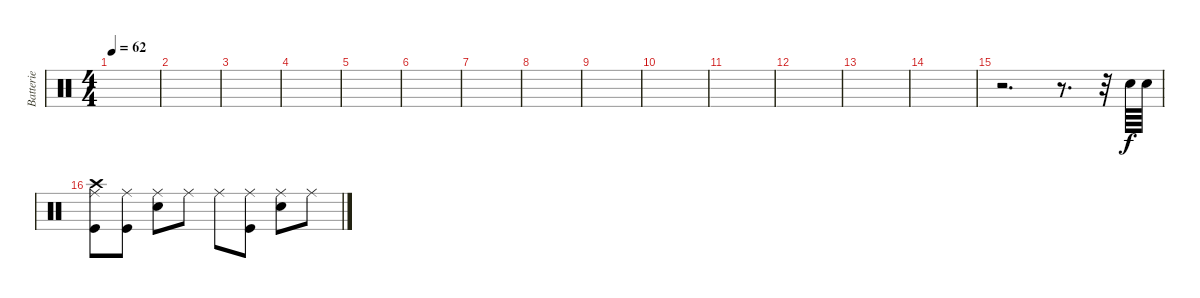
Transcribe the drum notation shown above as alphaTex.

\track ("Batterie" "Batterie") {instrument percussion}
\staff {score}
\articulation defaults
\ts (4 4)
\tempo 62
\clef neutral
\ks c
|
|
|
|
|
|
|
|
|
|
|
|
|
|
r.2{d} r.8{d} r.32 "Snare (hit) 2".64 "Snare (hit) 2".64 |
\section ("" "")
("Ride (middle)" "Crash high (hit)" "Kick (hit)").8 ("Ride (middle)" "Kick (hit)").8 ("Ride (middle)" "Snare (hit) 2").8 "Ride (middle)".8 "Ride (middle)".8 ("Ride (middle)" "Kick (hit)").8 ("Ride (middle)" "Snare (hit) 2").8 "Ride (middle)".8
